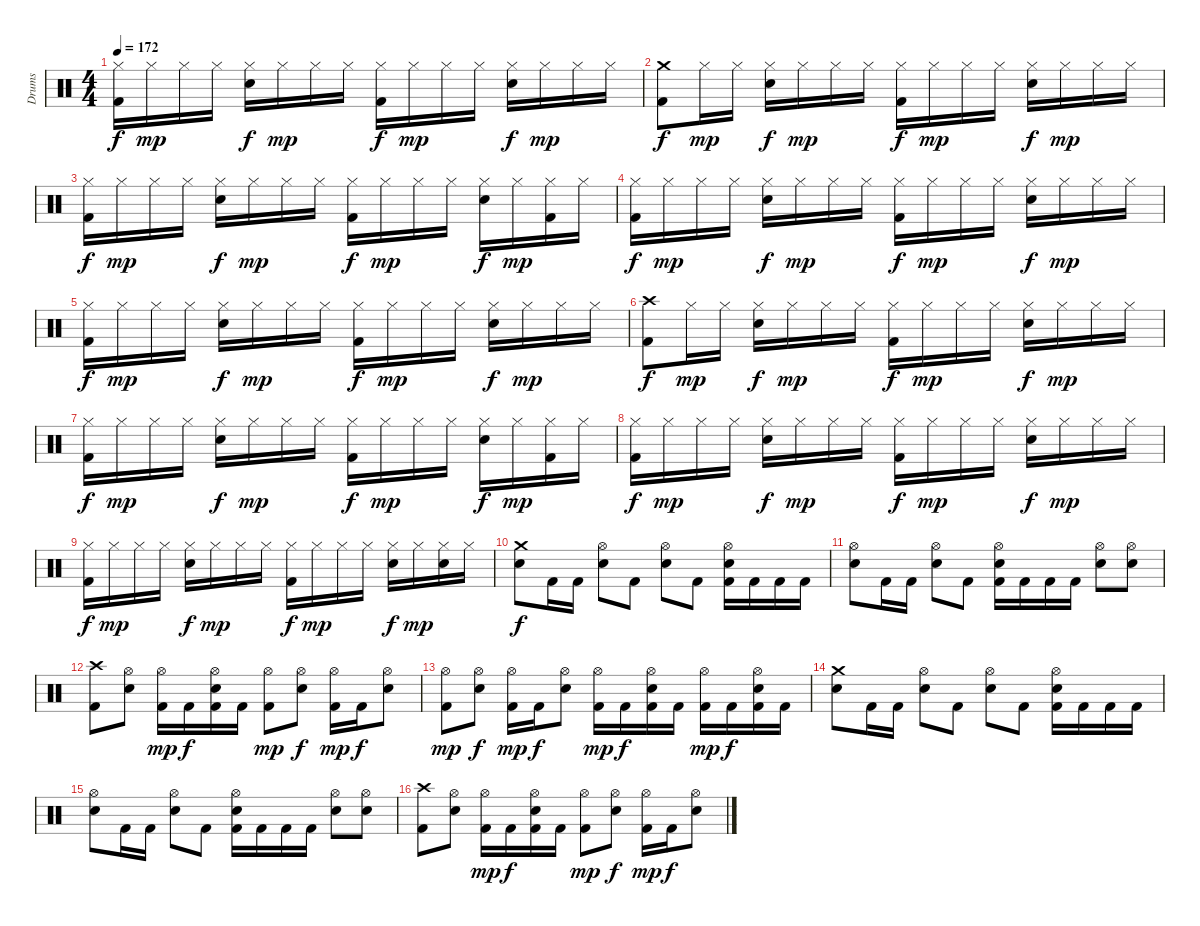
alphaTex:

\track ("Drums" "Drums") {instrument percussion}
\staff {score}
\articulation defaults
\ts (4 4)
\tempo 172
\clef neutral
\ks c
("Kick (hit) 2" "Hi-Hat (closed)").16{dy f} "Hi-Hat (closed)".16{dy mp} "Hi-Hat (closed)".16 "Hi-Hat (closed)".16 ("Snare (hit) 2" "Hi-Hat (closed)").16{dy f} "Hi-Hat (closed)".16{dy mp} "Hi-Hat (closed)".16 "Hi-Hat (closed)".16 ("Kick (hit) 2" "Hi-Hat (closed)").16{dy f} "Hi-Hat (closed)".16{dy mp} "Hi-Hat (closed)".16 "Hi-Hat (closed)".16 ("Snare (hit) 2" "Hi-Hat (closed)").16{dy f} "Hi-Hat (closed)".16{dy mp} "Hi-Hat (closed)".16 "Hi-Hat (closed)".16 |
("Kick (hit) 2" "Crash medium (hit)").8{dy f} "Hi-Hat (closed)".16{dy mp} "Hi-Hat (closed)".16 ("Snare (hit) 2" "Hi-Hat (closed)").16{dy f} "Hi-Hat (closed)".16{dy mp} "Hi-Hat (closed)".16 "Hi-Hat (closed)".16 ("Kick (hit) 2" "Hi-Hat (closed)").16{dy f} "Hi-Hat (closed)".16{dy mp} "Hi-Hat (closed)".16 "Hi-Hat (closed)".16 ("Snare (hit) 2" "Hi-Hat (closed)").16{dy f} "Hi-Hat (closed)".16{dy mp} "Hi-Hat (closed)".16 "Hi-Hat (closed)".16 |
("Kick (hit) 2" "Hi-Hat (closed)").16{dy f} "Hi-Hat (closed)".16{dy mp} "Hi-Hat (closed)".16 "Hi-Hat (closed)".16 ("Snare (hit) 2" "Hi-Hat (closed)").16{dy f} "Hi-Hat (closed)".16{dy mp} "Hi-Hat (closed)".16 "Hi-Hat (closed)".16 ("Kick (hit) 2" "Hi-Hat (closed)").16{dy f} "Hi-Hat (closed)".16{dy mp} "Hi-Hat (closed)".16 "Hi-Hat (closed)".16 ("Snare (hit) 2" "Hi-Hat (closed)").16{dy f} "Hi-Hat (closed)".16{dy mp} ("Kick (hit) 2" "Hi-Hat (closed)").16 "Hi-Hat (closed)".16 |
("Kick (hit) 2" "Hi-Hat (closed)").16{dy f} "Hi-Hat (closed)".16{dy mp} "Hi-Hat (closed)".16 "Hi-Hat (closed)".16 ("Snare (hit) 2" "Hi-Hat (closed)").16{dy f} "Hi-Hat (closed)".16{dy mp} "Hi-Hat (closed)".16 "Hi-Hat (closed)".16 ("Kick (hit) 2" "Hi-Hat (closed)").16{dy f} "Hi-Hat (closed)".16{dy mp} "Hi-Hat (closed)".16 "Hi-Hat (closed)".16 ("Snare (hit) 2" "Hi-Hat (closed)").16{dy f} "Hi-Hat (closed)".16{dy mp} "Hi-Hat (closed)".16 "Hi-Hat (closed)".16 |
("Kick (hit) 2" "Hi-Hat (closed)").16{dy f} "Hi-Hat (closed)".16{dy mp} "Hi-Hat (closed)".16 "Hi-Hat (closed)".16 ("Snare (hit) 2" "Hi-Hat (closed)").16{dy f} "Hi-Hat (closed)".16{dy mp} "Hi-Hat (closed)".16 "Hi-Hat (closed)".16 ("Kick (hit) 2" "Hi-Hat (closed)").16{dy f} "Hi-Hat (closed)".16{dy mp} "Hi-Hat (closed)".16 "Hi-Hat (closed)".16 ("Snare (hit) 2" "Hi-Hat (closed)").16{dy f} "Hi-Hat (closed)".16{dy mp} "Hi-Hat (closed)".16 "Hi-Hat (closed)".16 |
("Kick (hit) 2" "Crash high (hit)").8{dy f} "Hi-Hat (closed)".16{dy mp} "Hi-Hat (closed)".16 ("Snare (hit) 2" "Hi-Hat (closed)").16{dy f} "Hi-Hat (closed)".16{dy mp} "Hi-Hat (closed)".16 "Hi-Hat (closed)".16 ("Kick (hit) 2" "Hi-Hat (closed)").16{dy f} "Hi-Hat (closed)".16{dy mp} "Hi-Hat (closed)".16 "Hi-Hat (closed)".16 ("Snare (hit) 2" "Hi-Hat (closed)").16{dy f} "Hi-Hat (closed)".16{dy mp} "Hi-Hat (closed)".16 "Hi-Hat (closed)".16 |
("Kick (hit) 2" "Hi-Hat (closed)").16{dy f} "Hi-Hat (closed)".16{dy mp} "Hi-Hat (closed)".16 "Hi-Hat (closed)".16 ("Snare (hit) 2" "Hi-Hat (closed)").16{dy f} "Hi-Hat (closed)".16{dy mp} "Hi-Hat (closed)".16 "Hi-Hat (closed)".16 ("Kick (hit) 2" "Hi-Hat (closed)").16{dy f} "Hi-Hat (closed)".16{dy mp} "Hi-Hat (closed)".16 "Hi-Hat (closed)".16 ("Snare (hit) 2" "Hi-Hat (closed)").16{dy f} "Hi-Hat (closed)".16{dy mp} ("Kick (hit) 2" "Hi-Hat (closed)").16 "Hi-Hat (closed)".16 |
("Kick (hit) 2" "Hi-Hat (closed)").16{dy f} "Hi-Hat (closed)".16{dy mp} "Hi-Hat (closed)".16 "Hi-Hat (closed)".16 ("Snare (hit) 2" "Hi-Hat (closed)").16{dy f} "Hi-Hat (closed)".16{dy mp} "Hi-Hat (closed)".16 "Hi-Hat (closed)".16 ("Kick (hit) 2" "Hi-Hat (closed)").16{dy f} "Hi-Hat (closed)".16{dy mp} "Hi-Hat (closed)".16 "Hi-Hat (closed)".16 ("Snare (hit) 2" "Hi-Hat (closed)").16{dy f} "Hi-Hat (closed)".16{dy mp} "Hi-Hat (closed)".16 "Hi-Hat (closed)".16 |
("Kick (hit) 2" "Hi-Hat (closed)").16{dy f} "Hi-Hat (closed)".16{dy mp} "Hi-Hat (closed)".16 "Hi-Hat (closed)".16 ("Snare (hit) 2" "Hi-Hat (closed)").16{dy f} "Hi-Hat (closed)".16{dy mp} "Hi-Hat (closed)".16 "Hi-Hat (closed)".16 ("Kick (hit) 2" "Hi-Hat (closed)").16{dy f} "Hi-Hat (closed)".16{dy mp} "Hi-Hat (closed)".16 "Hi-Hat (closed)".16 ("Snare (hit) 2" "Hi-Hat (closed)").16{dy f} "Hi-Hat (closed)".16{dy mp} ("Snare (hit) 2" "Hi-Hat (closed)").16 "Hi-Hat (closed)".16 |
\section ("" "")
("Snare (hit) 2" "Crash medium (hit)").8{dy f} "Kick (hit) 2".16 "Kick (hit) 2".16 ("Snare (hit) 2" "Hi-Hat (open)").8 "Kick (hit) 2".8 ("Snare (hit) 2" "Hi-Hat (open)").8 "Kick (hit) 2".8 ("Kick (hit) 2" "Snare (hit) 2" "Hi-Hat (open)").16 "Kick (hit) 2".16 "Kick (hit) 2".16 "Kick (hit) 2".16 |
("Snare (hit) 2" "Hi-Hat (open)").8 "Kick (hit) 2".16 "Kick (hit) 2".16 ("Snare (hit) 2" "Hi-Hat (open)").8 "Kick (hit) 2".8 ("Kick (hit) 2" "Snare (hit) 2" "Hi-Hat (open)").16 "Kick (hit) 2".16 "Kick (hit) 2".16 "Kick (hit) 2".16 ("Snare (hit) 2" "Hi-Hat (open)").8 ("Snare (hit) 2" "Hi-Hat (open)").8 |
("Kick (hit) 2" "Crash high (hit)").8 ("Snare (hit) 2" "Hi-Hat (open)").8 ("Kick (hit) 2" "Hi-Hat (open)").16{dy mp} "Kick (hit) 2".16{dy f} ("Kick (hit) 2" "Snare (hit) 2" "Hi-Hat (open)").16 "Kick (hit) 2".16 ("Kick (hit) 2" "Hi-Hat (open)").8{dy mp} ("Snare (hit) 2" "Hi-Hat (open)").8{dy f} ("Kick (hit) 2" "Hi-Hat (open)").16{dy mp} "Kick (hit) 2".16{dy f} ("Snare (hit) 2" "Hi-Hat (open)").8 |
("Kick (hit) 2" "Hi-Hat (open)").8{dy mp} ("Snare (hit) 2" "Hi-Hat (open)").8{dy f} ("Kick (hit) 2" "Hi-Hat (open)").16{dy mp} "Kick (hit) 2".16{dy f} ("Snare (hit) 2" "Hi-Hat (open)").8 ("Kick (hit) 2" "Hi-Hat (open)").16{dy mp} "Kick (hit) 2".16{dy f} ("Kick (hit) 2" "Snare (hit) 2" "Hi-Hat (open)").16 "Kick (hit) 2".16 ("Kick (hit) 2" "Hi-Hat (open)").16{dy mp} "Kick (hit) 2".16{dy f} ("Kick (hit) 2" "Snare (hit) 2" "Hi-Hat (open)").16 "Kick (hit) 2".16 |
\section ("" "")
("Snare (hit) 2" "Crash medium (hit)").8 "Kick (hit) 2".16 "Kick (hit) 2".16 ("Snare (hit) 2" "Hi-Hat (open)").8 "Kick (hit) 2".8 ("Snare (hit) 2" "Hi-Hat (open)").8 "Kick (hit) 2".8 ("Kick (hit) 2" "Snare (hit) 2" "Hi-Hat (open)").16 "Kick (hit) 2".16 "Kick (hit) 2".16 "Kick (hit) 2".16 |
("Snare (hit) 2" "Hi-Hat (open)").8 "Kick (hit) 2".16 "Kick (hit) 2".16 ("Snare (hit) 2" "Hi-Hat (open)").8 "Kick (hit) 2".8 ("Kick (hit) 2" "Snare (hit) 2" "Hi-Hat (open)").16 "Kick (hit) 2".16 "Kick (hit) 2".16 "Kick (hit) 2".16 ("Snare (hit) 2" "Hi-Hat (open)").8 ("Snare (hit) 2" "Hi-Hat (open)").8 |
("Kick (hit) 2" "Crash high (hit)").8 ("Snare (hit) 2" "Hi-Hat (open)").8 ("Kick (hit) 2" "Hi-Hat (open)").16{dy mp} "Kick (hit) 2".16{dy f} ("Kick (hit) 2" "Snare (hit) 2" "Hi-Hat (open)").16 "Kick (hit) 2".16 ("Kick (hit) 2" "Hi-Hat (open)").8{dy mp} ("Snare (hit) 2" "Hi-Hat (open)").8{dy f} ("Kick (hit) 2" "Hi-Hat (open)").16{dy mp} "Kick (hit) 2".16{dy f} ("Snare (hit) 2" "Hi-Hat (open)").8
